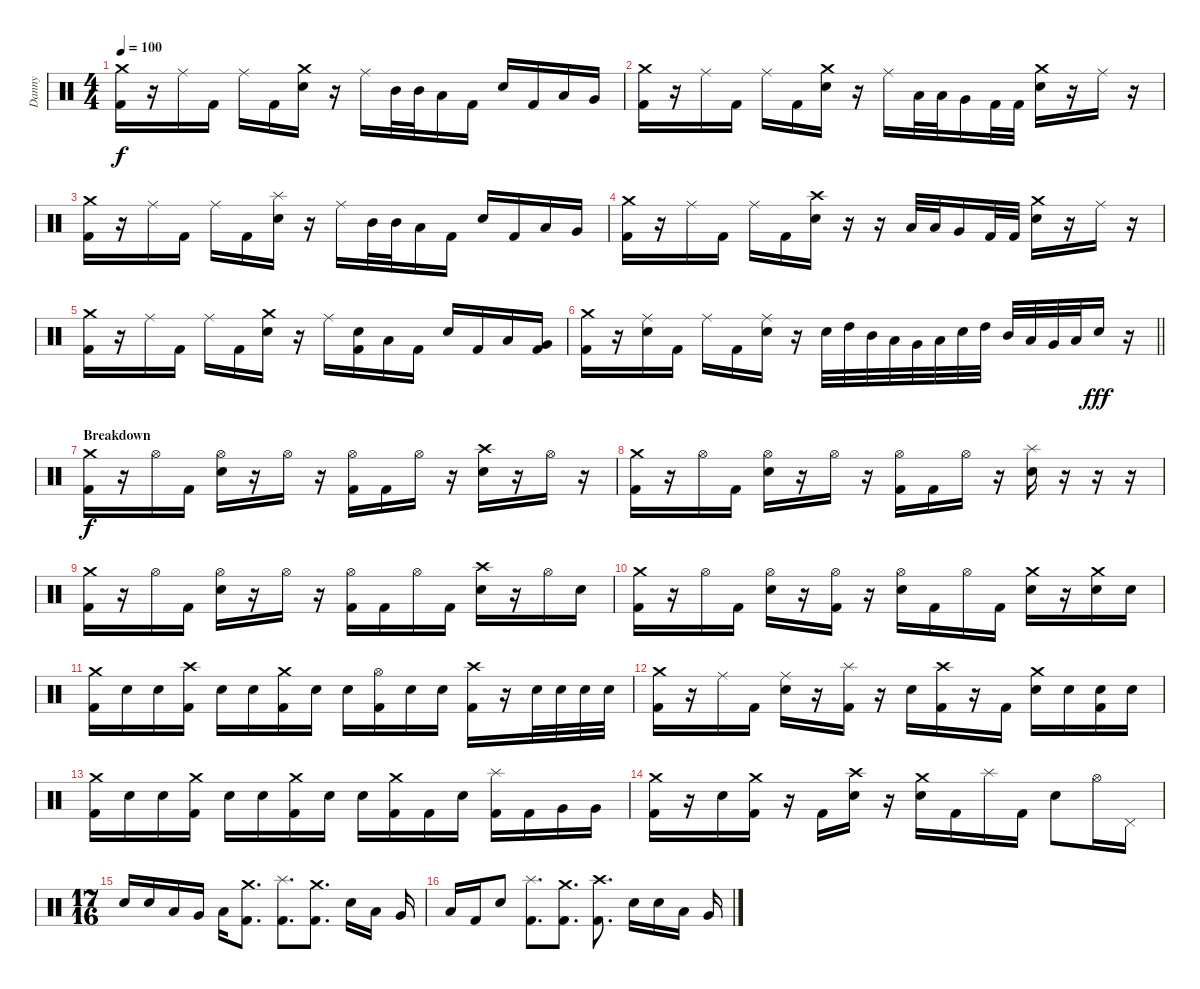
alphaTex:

\track ("Danny" "Danny") {instrument percussion}
\staff {score}
\articulation defaults
\ts (4 4)
\tempo 100
\clef neutral
\ks c
("Crash medium (hit)" "Kick (hit) 2").16{dy f} r.16 "Ride (middle)".16 "Kick (hit) 2".16 "Ride (middle)".16 "Kick (hit) 2".16 ("Crash medium (hit)" "Electric Snare (hit)").16 r.16 "Ride (middle)".16 "Mid Tom (hit)".32 "Mid Tom (hit)".32 "Low Tom (hit)".16 "Kick (hit) 2".16 "Electric Snare (hit)".16 "Kick (hit) 2".16 "Low Tom (hit)".16 "Very Low Tom (hit)".16 |
("Crash medium (hit)" "Kick (hit) 2").16 r.16 "Ride (middle)".16 "Kick (hit) 2".16 "Ride (middle)".16 "Kick (hit) 2".16 ("Crash medium (hit)" "Electric Snare (hit)").16 r.16 "Ride (middle)".16 "Low Tom (hit)".32 "Low Tom (hit)".32 "Very Low Tom (hit)".16 "Kick (hit) 2".32 "Kick (hit) 2".32 ("Crash medium (hit)" "Electric Snare (hit)").16 r.16 "Ride (middle)".16 r.16 |
("Crash medium (hit)" "Kick (hit) 2").16 r.16 "Ride (middle)".16 "Kick (hit) 2".16 "Ride (middle)".16 "Kick (hit) 2".16 ("Splash (hit)" "Electric Snare (hit)").16 r.16 "Ride (middle)".16 "Mid Tom (hit)".32 "Mid Tom (hit)".32 "Low Tom (hit)".16 "Kick (hit) 2".16 "Electric Snare (hit)".16 "Kick (hit) 2".16 "Low Tom (hit)".16 "Very Low Tom (hit)".16 |
("Crash medium (hit)" "Kick (hit) 2").16 r.16 "Ride (middle)".16 "Kick (hit) 2".16 "Ride (middle)".16 "Kick (hit) 2".16 ("Crash high (hit)" "Electric Snare (hit)").16 r.16 r.16 "Low Tom (hit)".32 "Low Tom (hit)".32 "Very Low Tom (hit)".16 "Kick (hit) 2".32 "Kick (hit) 2".32 ("Crash medium (hit)" "Electric Snare (hit)").16 r.16 "Ride (middle)".16 r.16 |
("Crash medium (hit)" "Kick (hit) 2").16 r.16 "Ride (middle)".16 "Kick (hit) 2".16 "Ride (middle)".16 "Kick (hit) 2".16 ("Crash medium (hit)" "Electric Snare (hit)").16 r.16 "Ride (middle)".16 ("Electric Snare (hit)" "Kick (hit) 2").16 "Low Tom (hit)".16 "Kick (hit) 2".16 "Electric Snare (hit)".16 "Kick (hit) 2".16 "Low Tom (hit)".16 ("Very Low Tom (hit)" "Kick (hit) 2").16 |
\barLineRight lightlight
("Crash medium (hit)" "Kick (hit) 2").16 r.16 ("Ride (middle)" "Electric Snare (hit)").16 "Kick (hit) 2".16 "Ride (middle)".16 "Kick (hit) 2".16 ("Ride (middle)" "Electric Snare (hit)").16 r.16 "Electric Snare (hit)".32 "High Tom (hit)".32 "Mid Tom (hit)".32 "Low Tom (hit)".32 "Very Low Tom (hit)".32 "Low Floor Tom (hit)".32 "Electric Snare (hit)".32 "High Tom (hit)".32 "Mid Tom (hit)".32 "Low Tom (hit)".32 "Very Low Tom (hit)".32 "Low Floor Tom (hit)".32 "Electric Snare (hit)".16{dy fff} r.16 |
\section ("" "Breakdown")
("Crash medium (hit)" "Kick (hit) 2").16{dy f} r.16 "Hi-Hat (open)".16 "Kick (hit) 2".16 ("Hi-Hat (open)" "Electric Snare (hit)").16 r.16 "Hi-Hat (open)".16 r.16 ("Hi-Hat (open)" "Kick (hit) 2").16 "Kick (hit) 2".16 "Hi-Hat (open)".16 r.16 ("Crash high (hit)" "Electric Snare (hit)").16 r.16 "Hi-Hat (open)".16 r.16 |
("Crash medium (hit)" "Kick (hit) 2").16 r.16 "Hi-Hat (open)".16 "Kick (hit) 2".16 ("Hi-Hat (open)" "Electric Snare (hit)").16 r.16 "Hi-Hat (open)".16 r.16 ("Hi-Hat (open)" "Kick (hit) 2").16 "Kick (hit) 2".16 "Hi-Hat (open)".16 r.16 ("Splash (hit)" "Electric Snare (hit)").16 r.16 r.16 r.16 |
("Crash medium (hit)" "Kick (hit) 2").16 r.16 "Hi-Hat (open)".16 "Kick (hit) 2".16 ("Hi-Hat (open)" "Electric Snare (hit)").16 r.16 "Hi-Hat (open)".16 r.16 ("Hi-Hat (open)" "Kick (hit) 2").16 "Kick (hit) 2".16 "Hi-Hat (open)".16 "Kick (hit) 2".16 ("Crash high (hit)" "Electric Snare (hit)").16 r.16 "Hi-Hat (open)".16 "Electric Snare (hit)".16 |
("Crash medium (hit)" "Kick (hit) 2").16 r.16 "Hi-Hat (open)".16 "Kick (hit) 2".16 ("Hi-Hat (open)" "Electric Snare (hit)").16 r.16 ("Hi-Hat (open)" "Kick (hit) 2").16 r.16 ("Hi-Hat (open)" "Electric Snare (hit)").16 "Kick (hit) 2".16 "Hi-Hat (open)".16 "Kick (hit) 2".16 ("Crash medium (hit)" "Electric Snare (hit)").16 r.16 ("Crash medium (hit)" "Electric Snare (hit)").16 "Electric Snare (hit)".16 |
("Crash medium (hit)" "Kick (hit) 2").16 "Electric Snare (hit)".16 "Electric Snare (hit)".16 ("Crash high (hit)" "Kick (hit) 2").16 "Electric Snare (hit)".16 "Electric Snare (hit)".16 ("Crash medium (hit)" "Kick (hit) 2").16 "Electric Snare (hit)".16 "Electric Snare (hit)".16 ("Hi-Hat (open)" "Kick (hit) 2").16 "Electric Snare (hit)".16 "Electric Snare (hit)".16 ("Crash high (hit)" "Kick (hit) 2").16 r.16 "Electric Snare (hit)".32 "Electric Snare (hit)".32 "Electric Snare (hit)".32 "Electric Snare (hit)".32 |
("Crash medium (hit)" "Kick (hit) 2").16 r.16 "Ride (middle)".16 "Kick (hit) 2".16 ("Ride (middle)" "Electric Snare (hit)").16 r.16 ("Splash (hit)" "Kick (hit) 2").16 r.16 "Electric Snare (hit)".16 ("Crash high (hit)" "Kick (hit) 2").16 r.16 "Kick (hit) 2".16 ("Crash medium (hit)" "Electric Snare (hit)").16 "Electric Snare (hit)".16 ("Electric Snare (hit)" "Kick (hit) 2").16 "Electric Snare (hit)".16 |
("Crash medium (hit)" "Kick (hit) 2").16 "Electric Snare (hit)".16 "Electric Snare (hit)".16 ("Crash medium (hit)" "Kick (hit) 2").16 "Electric Snare (hit)".16 "Electric Snare (hit)".16 ("Crash medium (hit)" "Kick (hit) 2").16 "Electric Snare (hit)".16 "Electric Snare (hit)".16 ("Crash medium (hit)" "Kick (hit) 2").16 "Kick (hit) 2".16 "Electric Snare (hit)".16 ("Splash (hit)" "Kick (hit) 2").16 "Kick (hit) 2".16 "Very Low Tom (hit)".16 "Very Low Tom (hit)".16 |
("Crash medium (hit)" "Kick (hit) 2").16 r.16 "Electric Snare (hit)".16 ("Crash medium (hit)" "Kick (hit) 2").16 r.16 "Kick (hit) 2".16 ("Crash high (hit)" "Electric Snare (hit)").16 r.16 ("Crash medium (hit)" "Electric Snare (hit)").16 "Kick (hit) 2".16 "Splash (hit)".16 "Kick (hit) 2".16 "Electric Snare (hit)".8 "Hi-Hat (open)".16 "Pedal Hi-Hat (hit)".16 |
\ts (17 16)
"Electric Snare (hit)".16 "Electric Snare (hit)".16 "Low Tom (hit)".16 "Very Low Tom (hit)".16 "Low Floor Tom (hit)".16 ("Crash medium (hit)" "Kick (hit) 2").8{d} ("Splash (hit)" "Kick (hit) 2").8{d} ("Crash medium (hit)" "Kick (hit) 2").8{d} "Electric Snare (hit)".16 "Low Tom (hit)".16 "Very Low Tom (hit)".16 |
"Low Floor Tom (hit)".16 "Kick (hit) 2".16 "Electric Snare (hit)".8 ("Splash (hit)" "Kick (hit) 2").8{d} ("Crash medium (hit)" "Kick (hit) 2").8{d} ("Crash high (hit)" "Kick (hit) 2").8{d} "Electric Snare (hit)".16 "Electric Snare (hit)".16 "Low Tom (hit)".16 "Very Low Tom (hit)".16
